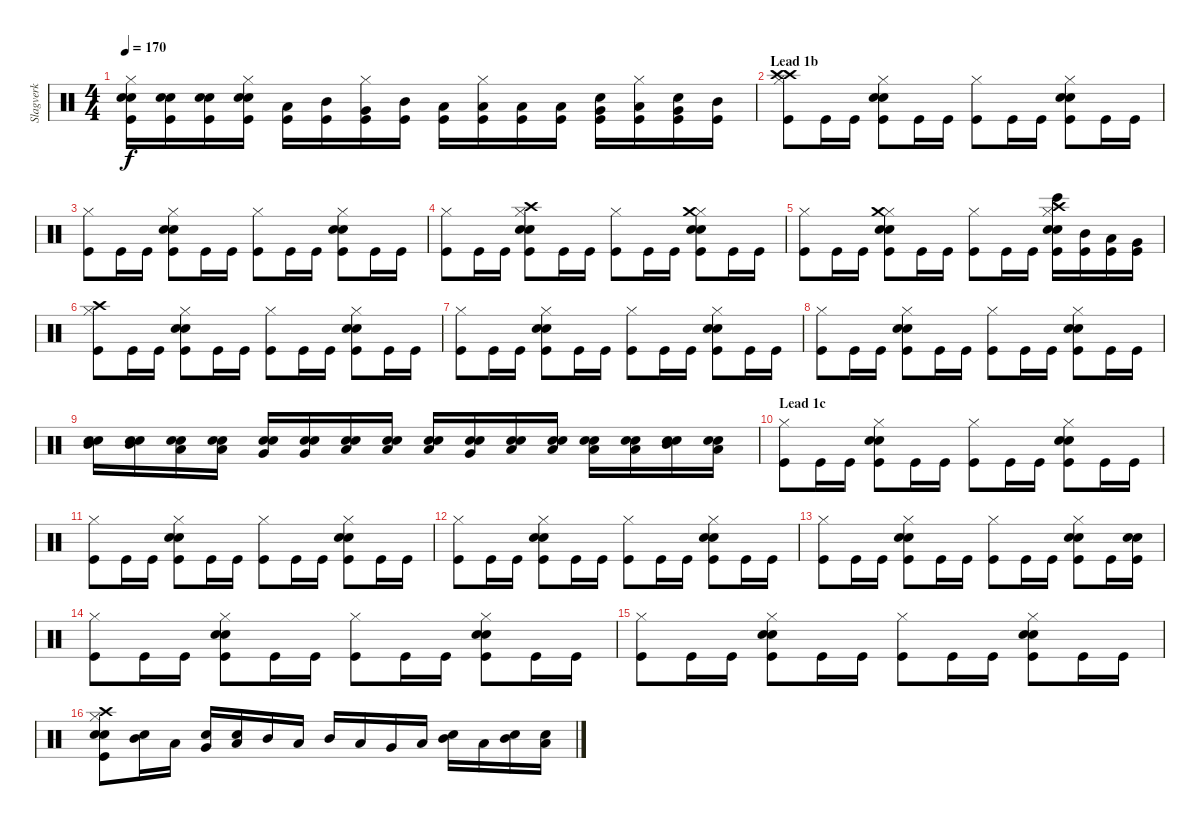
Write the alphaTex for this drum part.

\track ("Slagverk" "Slagverk") {instrument percussion}
\staff {score}
\articulation defaults
\ts (4 4)
\tempo 170
\clef neutral
\ks c
("Hi-Hat (closed)" "Snare (hit) 2" "Electric Snare (hit)" "Kick (hit)").16{dy f} ("Snare (hit) 2" "Electric Snare (hit)" "Kick (hit)").16 ("Snare (hit) 2" "Electric Snare (hit)" "Kick (hit)").16 ("Hi-Hat (closed)" "Snare (hit) 2" "Electric Snare (hit)" "Kick (hit)").16 ("Low Tom (hit)" "Kick (hit)").16 ("Mid Tom (hit)" "Kick (hit)").16 ("Hi-Hat (closed)" "Very Low Tom (hit)" "Kick (hit)").16 ("Mid Tom (hit)" "Kick (hit)").16 ("Low Tom (hit)" "Kick (hit)").16 ("Hi-Hat (closed)" "Low Tom (hit)" "Kick (hit)").16 ("Low Tom (hit)" "Kick (hit)").16 ("Low Floor Tom (hit)" "Kick (hit)").16 ("Electric Snare (hit)" "Very Low Tom (hit)" "Kick (hit)").16 ("Hi-Hat (closed)" "Low Tom (hit)" "Kick (hit)").16 ("Electric Snare (hit)" "Very Low Tom (hit)" "Kick (hit)").16 ("Mid Tom (hit)" "Kick (hit)").16 |
\section ("" "Lead 1b")
("Hi-Hat (closed)" "Crash high (hit)" "Crash high (hit)" "Kick (hit)").8 "Kick (hit)".16 "Kick (hit)".16 ("Hi-Hat (closed)" "Electric Snare (hit)" "Snare (hit) 2" "Kick (hit)").8 "Kick (hit)".16 "Kick (hit)".16 ("Hi-Hat (closed)" "Kick (hit)").8 "Kick (hit)".16 "Kick (hit)".16 ("Hi-Hat (closed)" "Electric Snare (hit)" "Snare (hit) 2" "Kick (hit)").8 "Kick (hit)".16 "Kick (hit)".16 |
("Hi-Hat (closed)" "Kick (hit)").8 "Kick (hit)".16 "Kick (hit)".16 ("Hi-Hat (closed)" "Electric Snare (hit)" "Snare (hit) 2" "Kick (hit)").8 "Kick (hit)".16 "Kick (hit)".16 ("Hi-Hat (closed)" "Kick (hit)").8 "Kick (hit)".16 "Kick (hit)".16 ("Hi-Hat (closed)" "Electric Snare (hit)" "Snare (hit) 2" "Kick (hit)").8 "Kick (hit)".16 "Kick (hit)".16 |
("Hi-Hat (closed)" "Kick (hit)").8 "Kick (hit)".16 "Kick (hit)".16 ("Hi-Hat (closed)" "Crash high (hit)" "Electric Snare (hit)" "Snare (hit) 2" "Kick (hit)").8 "Kick (hit)".16 "Kick (hit)".16 ("Hi-Hat (closed)" "Kick (hit)").8 "Kick (hit)".16 "Kick (hit)".16 ("Hi-Hat (closed)" "Crash medium (hit)" "Electric Snare (hit)" "Snare (hit) 2" "Kick (hit)").8 "Kick (hit)".16 "Kick (hit)".16 |
("Hi-Hat (closed)" "Kick (hit)").8 "Kick (hit)".16 "Kick (hit)".16 ("Hi-Hat (closed)" "Crash medium (hit)" "Electric Snare (hit)" "Snare (hit) 2" "Kick (hit)").8 "Kick (hit)".16 "Kick (hit)".16 ("Hi-Hat (closed)" "Kick (hit)").8 "Kick (hit)".16 "Kick (hit)".16 ("Hi-Hat (closed)" "Bongo High (hit)" "Crash high (hit)" "Electric Snare (hit)" "Snare (hit) 2" "Kick (hit)").16 ("Mid Tom (hit)" "Kick (hit)").16 ("Low Tom (hit)" "Kick (hit)").16 ("Very Low Tom (hit)" "Kick (hit)").16 |
("Hi-Hat (closed)" "Crash high (hit)" "Kick (hit)").8 "Kick (hit)".16 "Kick (hit)".16 ("Hi-Hat (closed)" "Electric Snare (hit)" "Snare (hit) 2" "Kick (hit)").8 "Kick (hit)".16 "Kick (hit)".16 ("Hi-Hat (closed)" "Kick (hit)").8 "Kick (hit)".16 "Kick (hit)".16 ("Hi-Hat (closed)" "Electric Snare (hit)" "Snare (hit) 2" "Kick (hit)").8 "Kick (hit)".16 "Kick (hit)".16 |
("Hi-Hat (closed)" "Kick (hit)").8 "Kick (hit)".16 "Kick (hit)".16 ("Hi-Hat (closed)" "Electric Snare (hit)" "Snare (hit) 2" "Kick (hit)").8 "Kick (hit)".16 "Kick (hit)".16 ("Hi-Hat (closed)" "Kick (hit)").8 "Kick (hit)".16 "Kick (hit)".16 ("Hi-Hat (closed)" "Electric Snare (hit)" "Snare (hit) 2" "Kick (hit)").8 "Kick (hit)".16 "Kick (hit)".16 |
("Hi-Hat (closed)" "Kick (hit)").8 "Kick (hit)".16 "Kick (hit)".16 ("Hi-Hat (closed)" "Electric Snare (hit)" "Snare (hit) 2" "Kick (hit)").8 "Kick (hit)".16 "Kick (hit)".16 ("Hi-Hat (closed)" "Kick (hit)").8 "Kick (hit)".16 "Kick (hit)".16 ("Hi-Hat (closed)" "Electric Snare (hit)" "Snare (hit) 2" "Kick (hit)").8 "Kick (hit)".16 "Kick (hit)".16 |
("Electric Snare (hit)" "Snare (hit) 2" "Mid Tom (hit)").16 ("Electric Snare (hit)" "Snare (hit) 2" "Mid Tom (hit)").16 ("Electric Snare (hit)" "Snare (hit) 2" "Low Tom (hit)").16 ("Electric Snare (hit)" "Snare (hit) 2" "Low Tom (hit)").16 ("Electric Snare (hit)" "Snare (hit) 2" "Very Low Tom (hit)").16 ("Electric Snare (hit)" "Snare (hit) 2" "Very Low Tom (hit)").16 ("Electric Snare (hit)" "Snare (hit) 2" "Low Floor Tom (hit)").16 ("Electric Snare (hit)" "Snare (hit) 2" "Low Floor Tom (hit)").16 ("Electric Snare (hit)" "Snare (hit) 2" "Low Floor Tom (hit)").16 ("Electric Snare (hit)" "Snare (hit) 2" "Very Low Tom (hit)").16 ("Electric Snare (hit)" "Snare (hit) 2" "Low Tom (hit)").16 ("Electric Snare (hit)" "Snare (hit) 2" "Low Tom (hit)").16 ("Electric Snare (hit)" "Electric Snare (hit)" "Low Tom (hit)").16 ("Electric Snare (hit)" "Electric Snare (hit)" "Low Tom (hit)").16 ("Electric Snare (hit)" "Electric Snare (hit)" "Mid Tom (hit)").16 ("Electric Snare (hit)" "Electric Snare (hit)" "Low Floor Tom (hit)").16 |
\section ("" "Lead 1c")
("Hi-Hat (closed)" "Kick (hit)").8 "Kick (hit)".16 "Kick (hit)".16 ("Hi-Hat (closed)" "Electric Snare (hit)" "Snare (hit) 2" "Kick (hit)").8 "Kick (hit)".16 "Kick (hit)".16 ("Hi-Hat (closed)" "Kick (hit)").8 "Kick (hit)".16 "Kick (hit)".16 ("Hi-Hat (closed)" "Electric Snare (hit)" "Snare (hit) 2" "Kick (hit)").8 "Kick (hit)".16 "Kick (hit)".16 |
("Hi-Hat (closed)" "Kick (hit)").8 "Kick (hit)".16 "Kick (hit)".16 ("Hi-Hat (closed)" "Electric Snare (hit)" "Snare (hit) 2" "Kick (hit)").8 "Kick (hit)".16 "Kick (hit)".16 ("Hi-Hat (closed)" "Kick (hit)").8 "Kick (hit)".16 "Kick (hit)".16 ("Hi-Hat (closed)" "Electric Snare (hit)" "Snare (hit) 2" "Kick (hit)").8 "Kick (hit)".16 "Kick (hit)".16 |
("Hi-Hat (closed)" "Kick (hit)").8 "Kick (hit)".16 "Kick (hit)".16 ("Hi-Hat (closed)" "Electric Snare (hit)" "Snare (hit) 2" "Kick (hit)").8 "Kick (hit)".16 "Kick (hit)".16 ("Hi-Hat (closed)" "Kick (hit)").8 "Kick (hit)".16 "Kick (hit)".16 ("Hi-Hat (closed)" "Electric Snare (hit)" "Snare (hit) 2" "Kick (hit)").8 "Kick (hit)".16 "Kick (hit)".16 |
("Hi-Hat (closed)" "Kick (hit)").8 "Kick (hit)".16 "Kick (hit)".16 ("Hi-Hat (closed)" "Electric Snare (hit)" "Snare (hit) 2" "Kick (hit)").8 "Kick (hit)".16 "Kick (hit)".16 ("Hi-Hat (closed)" "Kick (hit)").8 "Kick (hit)".16 "Kick (hit)".16 ("Hi-Hat (closed)" "Electric Snare (hit)" "Snare (hit) 2" "Kick (hit)").8 "Kick (hit)".16 ("Electric Snare (hit)" "Snare (hit) 2" "Kick (hit)").16 |
("Hi-Hat (closed)" "Kick (hit)").8 "Kick (hit)".16 "Kick (hit)".16 ("Hi-Hat (closed)" "Electric Snare (hit)" "Snare (hit) 2" "Kick (hit)").8 "Kick (hit)".16 "Kick (hit)".16 ("Hi-Hat (closed)" "Kick (hit)").8 "Kick (hit)".16 "Kick (hit)".16 ("Hi-Hat (closed)" "Electric Snare (hit)" "Snare (hit) 2" "Kick (hit)").8 "Kick (hit)".16 "Kick (hit)".16 |
("Hi-Hat (closed)" "Kick (hit)").8 "Kick (hit)".16 "Kick (hit)".16 ("Hi-Hat (closed)" "Electric Snare (hit)" "Snare (hit) 2" "Kick (hit)").8 "Kick (hit)".16 "Kick (hit)".16 ("Hi-Hat (closed)" "Kick (hit)").8 "Kick (hit)".16 "Kick (hit)".16 ("Hi-Hat (closed)" "Electric Snare (hit)" "Snare (hit) 2" "Kick (hit)").8 "Kick (hit)".16 "Kick (hit)".16 |
("Hi-Hat (closed)" "Crash high (hit)" "Snare (hit) 2" "Electric Snare (hit)" "Kick (hit)").8 ("Electric Snare (hit)" "Mid Tom (hit)").16 "Low Tom (hit)".16 ("Electric Snare (hit)" "Very Low Tom (hit)").16 ("Electric Snare (hit)" "Low Floor Tom (hit)").16 "Mid Tom (hit)".16 "Low Tom (hit)".16 "Mid Tom (hit)".16 "Low Tom (hit)".16 "Very Low Tom (hit)".16 "Low Floor Tom (hit)".16 ("Electric Snare (hit)" "Mid Tom (hit)").16 "Low Tom (hit)".16 ("Electric Snare (hit)" "Mid Tom (hit)").16 ("Electric Snare (hit)" "Low Tom (hit)").16
